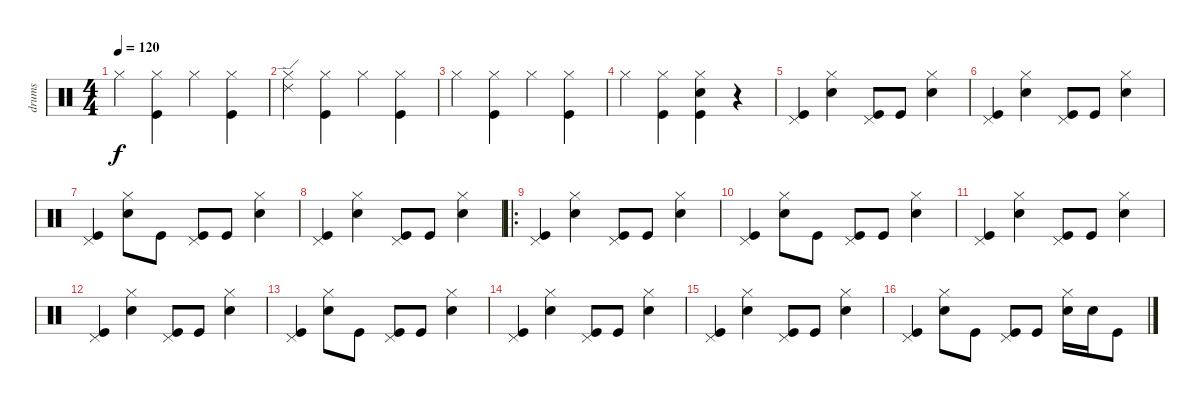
\track ("drums" "drums") {instrument percussion}
\staff {score}
\articulation defaults
\ts (4 4)
\tempo 120
\clef neutral
\ks c "Hi-Hat (closed)".4{dy f}
("Hi-Hat (closed)" "Kick (hit)").4 "Hi-Hat (closed)".4 ("Hi-Hat (closed)" "Kick (hit)").4 |
("Hi-Hat (closed)" "Ride (edge) 2").4 ("Hi-Hat (closed)" "Kick (hit)").4 "Hi-Hat (closed)".4 ("Hi-Hat (closed)" "Kick (hit)").4 |
"Hi-Hat (closed)".4 ("Hi-Hat (closed)" "Kick (hit)").4 "Hi-Hat (closed)".4 ("Hi-Hat (closed)" "Kick (hit)").4 |
"Hi-Hat (closed)".4 ("Hi-Hat (closed)" "Kick (hit)").4 ("Hi-Hat (closed)" "Snare (hit) 2" "Kick (hit)").4 r.4 |
("Pedal Hi-Hat (hit)" "Kick (hit)").4 ("Hi-Hat (closed)" "Snare (hit) 2").4 ("Pedal Hi-Hat (hit)" "Kick (hit)").8 "Kick (hit)".8 ("Hi-Hat (closed)" "Snare (hit) 2").4 |
("Pedal Hi-Hat (hit)" "Kick (hit)").4 ("Hi-Hat (closed)" "Snare (hit) 2").4 ("Pedal Hi-Hat (hit)" "Kick (hit)").8 "Kick (hit)".8 ("Hi-Hat (closed)" "Snare (hit) 2").4 |
("Pedal Hi-Hat (hit)" "Kick (hit)").4 ("Hi-Hat (closed)" "Snare (hit) 2").8 "Kick (hit)".8 ("Pedal Hi-Hat (hit)" "Kick (hit)").8 "Kick (hit)".8 ("Hi-Hat (closed)" "Snare (hit) 2").4 |
("Pedal Hi-Hat (hit)" "Kick (hit)").4 ("Hi-Hat (closed)" "Snare (hit) 2").4 ("Pedal Hi-Hat (hit)" "Kick (hit)").8 "Kick (hit)".8 ("Hi-Hat (closed)" "Snare (hit) 2").4 |
\ro
("Pedal Hi-Hat (hit)" "Kick (hit)").4 ("Hi-Hat (closed)" "Snare (hit) 2").4 ("Pedal Hi-Hat (hit)" "Kick (hit)").8 "Kick (hit)".8 ("Hi-Hat (closed)" "Snare (hit) 2").4 |
("Pedal Hi-Hat (hit)" "Kick (hit)").4 ("Hi-Hat (closed)" "Snare (hit) 2").8 "Kick (hit)".8 ("Pedal Hi-Hat (hit)" "Kick (hit)").8 "Kick (hit)".8 ("Hi-Hat (closed)" "Snare (hit) 2").4 |
("Pedal Hi-Hat (hit)" "Kick (hit)").4 ("Hi-Hat (closed)" "Snare (hit) 2").4 ("Pedal Hi-Hat (hit)" "Kick (hit)").8 "Kick (hit)".8 ("Hi-Hat (closed)" "Snare (hit) 2").4 |
("Pedal Hi-Hat (hit)" "Kick (hit)").4 ("Hi-Hat (closed)" "Snare (hit) 2").4 ("Pedal Hi-Hat (hit)" "Kick (hit)").8 "Kick (hit)".8 ("Hi-Hat (closed)" "Snare (hit) 2").4 |
("Pedal Hi-Hat (hit)" "Kick (hit)").4 ("Hi-Hat (closed)" "Snare (hit) 2").8 "Kick (hit)".8 ("Pedal Hi-Hat (hit)" "Kick (hit)").8 "Kick (hit)".8 ("Hi-Hat (closed)" "Snare (hit) 2").4 |
("Pedal Hi-Hat (hit)" "Kick (hit)").4 ("Hi-Hat (closed)" "Snare (hit) 2").4 ("Pedal Hi-Hat (hit)" "Kick (hit)").8 "Kick (hit)".8 ("Hi-Hat (closed)" "Snare (hit) 2").4 |
("Pedal Hi-Hat (hit)" "Kick (hit)").4 ("Hi-Hat (closed)" "Snare (hit) 2").4 ("Pedal Hi-Hat (hit)" "Kick (hit)").8 "Kick (hit)".8 ("Hi-Hat (closed)" "Snare (hit) 2").4 |
("Pedal Hi-Hat (hit)" "Kick (hit)").4 ("Hi-Hat (closed)" "Snare (hit) 2").8 "Kick (hit)".8 ("Pedal Hi-Hat (hit)" "Kick (hit)").8 "Kick (hit)".8 ("Hi-Hat (closed)" "Snare (hit) 2").16 "Snare (hit) 2".16 "Kick (hit)".8
